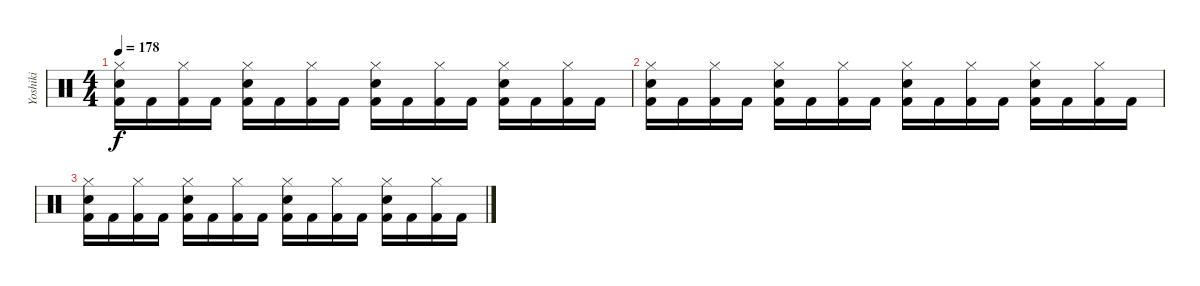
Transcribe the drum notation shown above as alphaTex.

\track ("Yoshiki" "Yoshiki") {instrument percussion}
\staff {score}
\articulation defaults
\ts (4 4)
\tempo 178
\clef neutral
\ks c
("Hi-Hat (closed)" "Snare (hit) 2" "Kick (hit) 2").16{dy f} "Kick (hit) 2".16 ("Hi-Hat (closed)" "Kick (hit) 2").16 "Kick (hit) 2".16 ("Hi-Hat (closed)" "Snare (hit) 2" "Kick (hit) 2").16 "Kick (hit) 2".16 ("Hi-Hat (closed)" "Kick (hit) 2").16 "Kick (hit) 2".16 ("Hi-Hat (closed)" "Snare (hit) 2" "Kick (hit) 2").16 "Kick (hit) 2".16 ("Hi-Hat (closed)" "Kick (hit) 2").16 "Kick (hit) 2".16 ("Hi-Hat (closed)" "Snare (hit) 2" "Kick (hit) 2").16 "Kick (hit) 2".16 ("Hi-Hat (closed)" "Kick (hit) 2").16 "Kick (hit) 2".16 |
("Hi-Hat (closed)" "Snare (hit) 2" "Kick (hit) 2").16 "Kick (hit) 2".16 ("Hi-Hat (closed)" "Kick (hit) 2").16 "Kick (hit) 2".16 ("Hi-Hat (closed)" "Snare (hit) 2" "Kick (hit) 2").16 "Kick (hit) 2".16 ("Hi-Hat (closed)" "Kick (hit) 2").16 "Kick (hit) 2".16 ("Hi-Hat (closed)" "Snare (hit) 2" "Kick (hit) 2").16 "Kick (hit) 2".16 ("Hi-Hat (closed)" "Kick (hit) 2").16 "Kick (hit) 2".16 ("Hi-Hat (closed)" "Snare (hit) 2" "Kick (hit) 2").16 "Kick (hit) 2".16 ("Hi-Hat (closed)" "Kick (hit) 2").16 "Kick (hit) 2".16 |
("Hi-Hat (closed)" "Snare (hit) 2" "Kick (hit) 2").16 "Kick (hit) 2".16 ("Hi-Hat (closed)" "Kick (hit) 2").16 "Kick (hit) 2".16 ("Hi-Hat (closed)" "Snare (hit) 2" "Kick (hit) 2").16 "Kick (hit) 2".16 ("Hi-Hat (closed)" "Kick (hit) 2").16 "Kick (hit) 2".16 ("Hi-Hat (closed)" "Snare (hit) 2" "Kick (hit) 2").16 "Kick (hit) 2".16 ("Hi-Hat (closed)" "Kick (hit) 2").16 "Kick (hit) 2".16 ("Hi-Hat (closed)" "Snare (hit) 2" "Kick (hit) 2").16 "Kick (hit) 2".16 ("Hi-Hat (closed)" "Kick (hit) 2").16 "Kick (hit) 2".16
